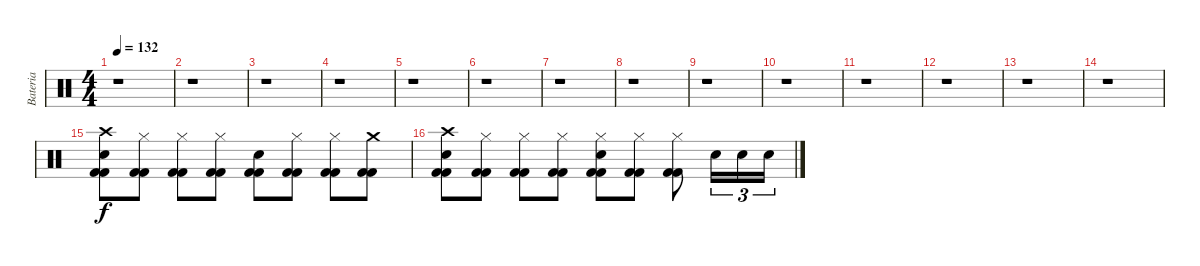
\track ("Bateria" "Bateria") {instrument percussion}
\staff {score}
\articulation defaults
\ts (4 4)
\tempo 132
\clef neutral
\ks c
r.1{dy f} |
r.1 |
r.1 |
r.1 |
r.1 |
r.1 |
r.1 |
r.1 |
r.1 |
r.1 |
r.1 |
r.1 |
r.1 |
r.1 |
("Kick (hit) 2" "Kick (hit) 2" "Snare (hit) 2" "Crash high (hit)").8 ("Kick (hit) 2" "Kick (hit) 2" "Hi-Hat (closed)").8 ("Kick (hit) 2" "Kick (hit) 2" "Hi-Hat (closed)").8 ("Kick (hit) 2" "Kick (hit) 2" "Hi-Hat (closed)").8 ("Kick (hit) 2" "Kick (hit) 2" "Snare (hit) 2").8 ("Kick (hit) 2" "Kick (hit) 2" "Hi-Hat (closed)").8 ("Kick (hit) 2" "Kick (hit) 2" "Hi-Hat (closed)").8 ("Kick (hit) 2" "Kick (hit) 2" "Crash medium (hit)").8 |
("Kick (hit) 2" "Kick (hit) 2" "Snare (hit) 2" "Crash high (hit)").8 ("Kick (hit) 2" "Kick (hit) 2" "Hi-Hat (closed)").8 ("Kick (hit) 2" "Kick (hit) 2" "Hi-Hat (closed)").8 ("Kick (hit) 2" "Kick (hit) 2" "Hi-Hat (closed)").8 ("Kick (hit) 2" "Kick (hit) 2" "Hi-Hat (closed)" "Snare (hit) 2").8 ("Kick (hit) 2" "Kick (hit) 2" "Hi-Hat (closed)").8 ("Kick (hit) 2" "Kick (hit) 2" "Hi-Hat (closed)").8 "Snare (hit) 2".16{tu (3 2)} "Snare (hit) 2".16{tu (3 2)} "Snare (hit) 2".16{tu (3 2)}
